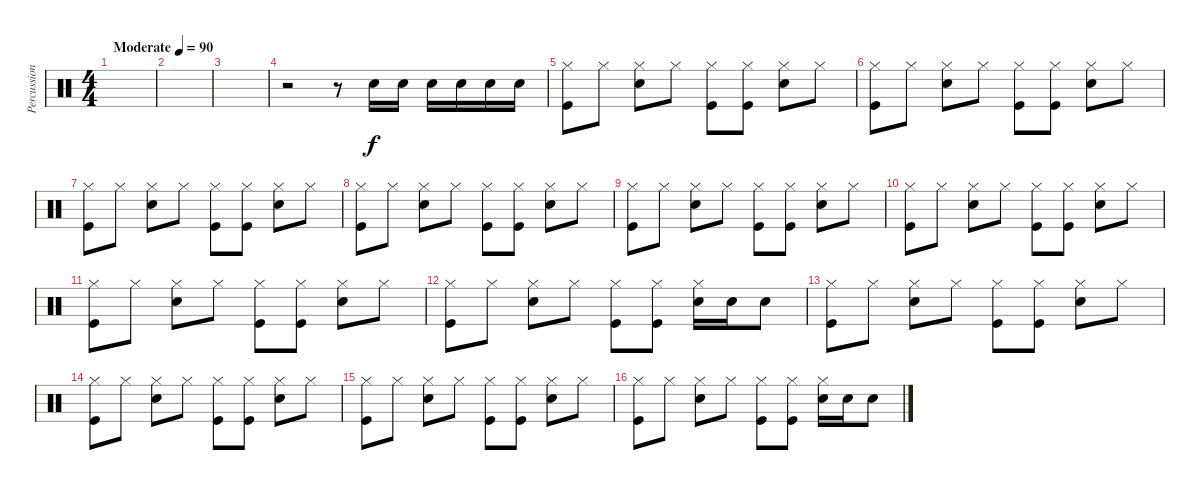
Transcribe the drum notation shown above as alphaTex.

\track ("Percussion" "Percussion") {instrument percussion}
\staff {score}
\articulation defaults
\ts (4 4)
\tempo (90 "Moderate")
\clef neutral
\ks c
|
|
|
r.2 r.8 "Snare (hit) 2".16 "Snare (hit) 2".16 "Snare (hit) 2".16 "Snare (hit) 2".16 "Snare (hit) 2".16 "Snare (hit) 2".16 |
("Hi-Hat (closed)" "Kick (hit)").8 "Hi-Hat (closed)".8 ("Hi-Hat (closed)" "Snare (hit) 2").8 "Hi-Hat (closed)".8 ("Hi-Hat (closed)" "Kick (hit)").8 ("Hi-Hat (closed)" "Kick (hit)").8 ("Hi-Hat (closed)" "Snare (hit) 2").8 "Hi-Hat (closed)".8 |
("Hi-Hat (closed)" "Kick (hit)").8 "Hi-Hat (closed)".8 ("Hi-Hat (closed)" "Snare (hit) 2").8 "Hi-Hat (closed)".8 ("Hi-Hat (closed)" "Kick (hit)").8 ("Hi-Hat (closed)" "Kick (hit)").8 ("Hi-Hat (closed)" "Snare (hit) 2").8 "Hi-Hat (closed)".8 |
("Hi-Hat (closed)" "Kick (hit)").8 "Hi-Hat (closed)".8 ("Hi-Hat (closed)" "Snare (hit) 2").8 "Hi-Hat (closed)".8 ("Hi-Hat (closed)" "Kick (hit)").8 ("Hi-Hat (closed)" "Kick (hit)").8 ("Hi-Hat (closed)" "Snare (hit) 2").8 "Hi-Hat (closed)".8 |
("Hi-Hat (closed)" "Kick (hit)").8 "Hi-Hat (closed)".8 ("Hi-Hat (closed)" "Snare (hit) 2").8 "Hi-Hat (closed)".8 ("Hi-Hat (closed)" "Kick (hit)").8 ("Hi-Hat (closed)" "Kick (hit)").8 ("Hi-Hat (closed)" "Snare (hit) 2").8 "Hi-Hat (closed)".8 |
("Hi-Hat (closed)" "Kick (hit)").8 "Hi-Hat (closed)".8 ("Hi-Hat (closed)" "Snare (hit) 2").8 "Hi-Hat (closed)".8 ("Hi-Hat (closed)" "Kick (hit)").8 ("Hi-Hat (closed)" "Kick (hit)").8 ("Hi-Hat (closed)" "Snare (hit) 2").8 "Hi-Hat (closed)".8 |
("Hi-Hat (closed)" "Kick (hit)").8 "Hi-Hat (closed)".8 ("Hi-Hat (closed)" "Snare (hit) 2").8 "Hi-Hat (closed)".8 ("Hi-Hat (closed)" "Kick (hit)").8 ("Hi-Hat (closed)" "Kick (hit)").8 ("Hi-Hat (closed)" "Snare (hit) 2").8 "Hi-Hat (closed)".8 |
("Hi-Hat (closed)" "Kick (hit)").8 "Hi-Hat (closed)".8 ("Hi-Hat (closed)" "Snare (hit) 2").8 "Hi-Hat (closed)".8 ("Hi-Hat (closed)" "Kick (hit)").8 ("Hi-Hat (closed)" "Kick (hit)").8 ("Hi-Hat (closed)" "Snare (hit) 2").8 "Hi-Hat (closed)".8 |
("Hi-Hat (closed)" "Kick (hit)").8 "Hi-Hat (closed)".8 ("Hi-Hat (closed)" "Snare (hit) 2").8 "Hi-Hat (closed)".8 ("Hi-Hat (closed)" "Kick (hit)").8 ("Hi-Hat (closed)" "Kick (hit)").8 ("Hi-Hat (closed)" "Snare (hit) 2").16 "Snare (hit) 2".16 "Snare (hit) 2".8 |
("Hi-Hat (closed)" "Kick (hit)").8 "Hi-Hat (closed)".8 ("Hi-Hat (closed)" "Snare (hit) 2").8 "Hi-Hat (closed)".8 ("Hi-Hat (closed)" "Kick (hit)").8 ("Hi-Hat (closed)" "Kick (hit)").8 ("Hi-Hat (closed)" "Snare (hit) 2").8 "Hi-Hat (closed)".8 |
("Hi-Hat (closed)" "Kick (hit)").8 "Hi-Hat (closed)".8 ("Hi-Hat (closed)" "Snare (hit) 2").8 "Hi-Hat (closed)".8 ("Hi-Hat (closed)" "Kick (hit)").8 ("Hi-Hat (closed)" "Kick (hit)").8 ("Hi-Hat (closed)" "Snare (hit) 2").8 "Hi-Hat (closed)".8 |
("Hi-Hat (closed)" "Kick (hit)").8 "Hi-Hat (closed)".8 ("Hi-Hat (closed)" "Snare (hit) 2").8 "Hi-Hat (closed)".8 ("Hi-Hat (closed)" "Kick (hit)").8 ("Hi-Hat (closed)" "Kick (hit)").8 ("Hi-Hat (closed)" "Snare (hit) 2").8 "Hi-Hat (closed)".8 |
("Hi-Hat (closed)" "Kick (hit)").8 "Hi-Hat (closed)".8 ("Hi-Hat (closed)" "Snare (hit) 2").8 "Hi-Hat (closed)".8 ("Hi-Hat (closed)" "Kick (hit)").8 ("Hi-Hat (closed)" "Kick (hit)").8 ("Hi-Hat (closed)" "Snare (hit) 2").16 "Snare (hit) 2".16 "Snare (hit) 2".8
